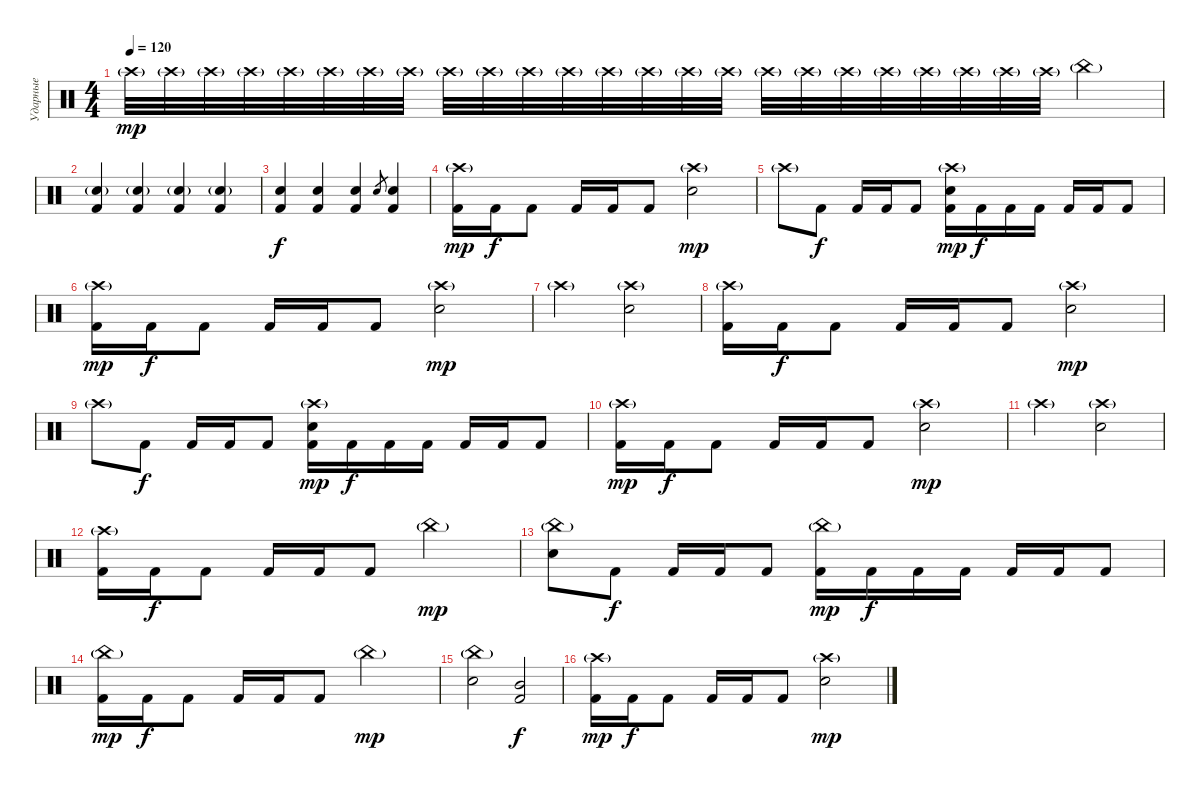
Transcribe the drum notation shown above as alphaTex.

\track ("Ударные" "Ударные") {instrument percussion}
\staff {score}
\articulation defaults
\ts (4 4)
\tempo 120
\clef neutral
\ks c "Crash high (hit)"{g}.32{dy mp} "Crash high (hit)"{g}.32 "Crash high (hit)"{g}.32 "Crash high (hit)"{g}.32 "Crash high (hit)"{g}.32 "Crash high (hit)"{g}.32 "Crash high (hit)"{g}.32 "Crash high (hit)"{g}.32 "Crash high (hit)"{g}.32 "Crash high (hit)"{g}.32 "Crash high (hit)"{g}.32 "Crash high (hit)"{g}.32 "Crash high (hit)"{g}.32 "Crash high (hit)"{g}.32 "Crash high (hit)"{g}.32 "Crash high (hit)"{g}.32 "Crash high (hit)"{g}.32 "Crash high (hit)"{g}.32 "Crash high (hit)"{g}.32 "Crash high (hit)"{g}.32 "Crash high (hit)"{g}.32 "Crash high (hit)"{g}.32 "Crash high (hit)"{g}.32 "Crash high (hit)"{g}.32 "China (hit)"{g}.4
|
("Electric Snare (hit)"{g} "Kick (hit) 2").4 ("Electric Snare (hit)"{g} "Kick (hit) 2").4 ("Electric Snare (hit)"{g} "Kick (hit) 2").4 ("Electric Snare (hit)"{g} "Kick (hit) 2").4 |
("Electric Snare (hit)" "Kick (hit) 2").4{dy f} ("Electric Snare (hit)" "Kick (hit) 2").4 ("Electric Snare (hit)" "Kick (hit) 2").4 "Electric Snare (hit)".8{gr} ("Electric Snare (hit)" "Kick (hit) 2").4 |
("Crash high (hit)"{g} "Kick (hit) 2").16{dy mp} "Kick (hit) 2".16{dy f} "Kick (hit) 2".8 "Kick (hit) 2".16 "Kick (hit) 2".16 "Kick (hit) 2".8 ("Crash high (hit)"{g} "Electric Snare (hit)").2{dy mp} |
"Crash high (hit)"{g}.8 "Kick (hit) 2".8{dy f} "Kick (hit) 2".16 "Kick (hit) 2".16 "Kick (hit) 2".8 ("Crash high (hit)"{g} "Electric Snare (hit)" "Kick (hit) 2").16{dy mp} "Kick (hit) 2".16{dy f} "Kick (hit) 2".16 "Kick (hit) 2".16 "Kick (hit) 2".16 "Kick (hit) 2".16 "Kick (hit) 2".8 |
("Crash high (hit)"{g} "Kick (hit) 2").16{dy mp} "Kick (hit) 2".16{dy f} "Kick (hit) 2".8 "Kick (hit) 2".16 "Kick (hit) 2".16 "Kick (hit) 2".8 ("Crash high (hit)"{g} "Electric Snare (hit)").2{dy mp} |
"Crash high (hit)"{g}.2 ("Crash high (hit)"{g} "Electric Snare (hit)").2 |
("Crash high (hit)"{g} "Kick (hit) 2").16 "Kick (hit) 2".16{dy f} "Kick (hit) 2".8 "Kick (hit) 2".16 "Kick (hit) 2".16 "Kick (hit) 2".8 ("Crash high (hit)"{g} "Electric Snare (hit)").2{dy mp} |
"Crash high (hit)"{g}.8 "Kick (hit) 2".8{dy f} "Kick (hit) 2".16 "Kick (hit) 2".16 "Kick (hit) 2".8 ("Crash high (hit)"{g} "Electric Snare (hit)" "Kick (hit) 2").16{dy mp} "Kick (hit) 2".16{dy f} "Kick (hit) 2".16 "Kick (hit) 2".16 "Kick (hit) 2".16 "Kick (hit) 2".16 "Kick (hit) 2".8 |
("Crash high (hit)"{g} "Kick (hit) 2").16{dy mp} "Kick (hit) 2".16{dy f} "Kick (hit) 2".8 "Kick (hit) 2".16 "Kick (hit) 2".16 "Kick (hit) 2".8 ("Crash high (hit)"{g} "Electric Snare (hit)").2{dy mp} |
"Crash high (hit)"{g}.2 ("Crash high (hit)"{g} "Electric Snare (hit)").2 |
("Crash high (hit)"{g} "Kick (hit) 2").16 "Kick (hit) 2".16{dy f} "Kick (hit) 2".8 "Kick (hit) 2".16 "Kick (hit) 2".16 "Kick (hit) 2".8 "China (hit)"{g}.2{dy mp} |
("China (hit)"{g} "Electric Snare (hit)").8 "Kick (hit) 2".8{dy f} "Kick (hit) 2".16 "Kick (hit) 2".16 "Kick (hit) 2".8 ("China (hit)"{g} "Kick (hit) 2").16{dy mp} "Kick (hit) 2".16{dy f} "Kick (hit) 2".16 "Kick (hit) 2".16 "Kick (hit) 2".16 "Kick (hit) 2".16 "Kick (hit) 2".8 |
("China (hit)"{g} "Kick (hit) 2").16{dy mp} "Kick (hit) 2".16{dy f} "Kick (hit) 2".8 "Kick (hit) 2".16 "Kick (hit) 2".16 "Kick (hit) 2".8 "China (hit)"{g}.2{dy mp} |
("China (hit)"{g} "Electric Snare (hit)").2 ("Mid Tom (hit)" "Kick (hit) 2").2{dy f} |
("Crash high (hit)"{g} "Kick (hit) 2").16{dy mp} "Kick (hit) 2".16{dy f} "Kick (hit) 2".8 "Kick (hit) 2".16 "Kick (hit) 2".16 "Kick (hit) 2".8 ("Crash high (hit)"{g} "Electric Snare (hit)").2{dy mp}
